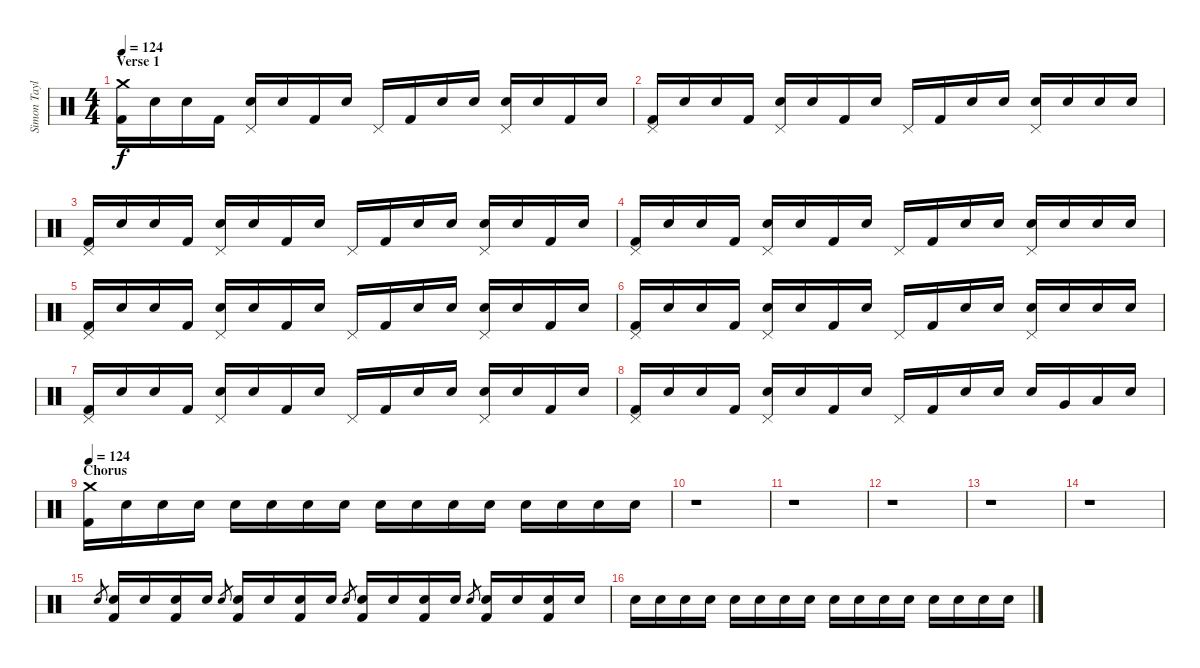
\track ("Simon Taylor - Drums" "Simon Tayl") {instrument percussion}
\staff {score}
\articulation defaults
\ts (4 4)
\section ("" "Verse 1")
\tempo 124
\clef neutral
\ks c
("Crash medium (hit)" "Kick (hit) 2").16{dy f volume 16 balance 8} "Snare (hit)".16 "Snare (hit)".16 "Kick (hit) 2".16 ("Pedal Hi-Hat (hit)" "Electric Snare (hit)").16 "Snare (hit)".16 "Kick (hit) 2".16 "Snare (hit)".16 "Pedal Hi-Hat (hit)".16 "Kick (hit) 2".16 "Snare (hit)".16 "Snare (hit)".16 ("Pedal Hi-Hat (hit)" "Electric Snare (hit)").16 "Snare (hit)".16 "Kick (hit) 2".16 "Snare (hit)".16 |
("Pedal Hi-Hat (hit)" "Kick (hit) 2").16 "Snare (hit)".16 "Snare (hit)".16 "Kick (hit) 2".16 ("Pedal Hi-Hat (hit)" "Electric Snare (hit)").16 "Snare (hit)".16 "Kick (hit) 2".16 "Snare (hit)".16 "Pedal Hi-Hat (hit)".16 "Kick (hit) 2".16 "Snare (hit)".16 "Snare (hit)".16 ("Pedal Hi-Hat (hit)" "Electric Snare (hit)").16 "Electric Snare (hit)".16 "Electric Snare (hit)".16 "Snare (hit)".16 |
("Pedal Hi-Hat (hit)" "Kick (hit) 2").16 "Snare (hit)".16 "Snare (hit)".16 "Kick (hit) 2".16 ("Pedal Hi-Hat (hit)" "Electric Snare (hit)").16 "Snare (hit)".16 "Kick (hit) 2".16 "Snare (hit)".16 "Pedal Hi-Hat (hit)".16 "Kick (hit) 2".16 "Snare (hit)".16 "Snare (hit)".16 ("Pedal Hi-Hat (hit)" "Electric Snare (hit)").16 "Snare (hit)".16 "Kick (hit) 2".16 "Snare (hit)".16 |
("Pedal Hi-Hat (hit)" "Kick (hit) 2").16 "Snare (hit)".16 "Snare (hit)".16 "Kick (hit) 2".16 ("Pedal Hi-Hat (hit)" "Electric Snare (hit)").16 "Snare (hit)".16 "Kick (hit) 2".16 "Snare (hit)".16 "Pedal Hi-Hat (hit)".16 "Kick (hit) 2".16 "Snare (hit)".16 "Snare (hit)".16 ("Pedal Hi-Hat (hit)" "Electric Snare (hit)").16 "Electric Snare (hit)".16 "Electric Snare (hit)".16 "Snare (hit)".16 |
("Pedal Hi-Hat (hit)" "Kick (hit) 2").16 "Snare (hit)".16 "Snare (hit)".16 "Kick (hit) 2".16 ("Pedal Hi-Hat (hit)" "Electric Snare (hit)").16 "Snare (hit)".16 "Kick (hit) 2".16 "Snare (hit)".16 "Pedal Hi-Hat (hit)".16 "Kick (hit) 2".16 "Snare (hit)".16 "Snare (hit)".16 ("Pedal Hi-Hat (hit)" "Electric Snare (hit)").16 "Snare (hit)".16 "Kick (hit) 2".16 "Snare (hit)".16 |
("Pedal Hi-Hat (hit)" "Kick (hit) 2").16 "Snare (hit)".16 "Snare (hit)".16 "Kick (hit) 2".16 ("Pedal Hi-Hat (hit)" "Electric Snare (hit)").16 "Snare (hit)".16 "Kick (hit) 2".16 "Snare (hit)".16 "Pedal Hi-Hat (hit)".16 "Kick (hit) 2".16 "Snare (hit)".16 "Snare (hit)".16 ("Pedal Hi-Hat (hit)" "Electric Snare (hit)").16 "Electric Snare (hit)".16 "Electric Snare (hit)".16 "Snare (hit)".16 |
("Pedal Hi-Hat (hit)" "Kick (hit) 2").16 "Snare (hit)".16 "Snare (hit)".16 "Kick (hit) 2".16 ("Pedal Hi-Hat (hit)" "Electric Snare (hit)").16 "Snare (hit)".16 "Kick (hit) 2".16 "Snare (hit)".16 "Pedal Hi-Hat (hit)".16 "Kick (hit) 2".16 "Snare (hit)".16 "Snare (hit)".16 ("Pedal Hi-Hat (hit)" "Electric Snare (hit)").16 "Snare (hit)".16 "Kick (hit) 2".16 "Snare (hit)".16 |
("Pedal Hi-Hat (hit)" "Kick (hit) 2").16 "Snare (hit)".16 "Snare (hit)".16 "Kick (hit) 2".16 ("Pedal Hi-Hat (hit)" "Electric Snare (hit)").16 "Snare (hit)".16 "Kick (hit) 2".16 "Snare (hit)".16 "Pedal Hi-Hat (hit)".16 "Kick (hit) 2".16 "Snare (hit)".16 "Snare (hit)".16 "Electric Snare (hit)".16 "Very Low Tom (hit)".16 "Low Floor Tom (hit)".16 "Snare (hit)".16 |
\section ("" "Chorus")
\tempo 124
("Crash medium (hit)" "Kick (hit) 2").16{volume 16 balance 8} "Snare (hit)".16 "Snare (hit)".16 "Snare (hit)".16 "Snare (hit)".16 "Snare (hit)".16 "Snare (hit)".16 "Snare (hit)".16 "Snare (hit)".16 "Snare (hit)".16 "Snare (hit)".16 "Snare (hit)".16 "Snare (hit)".16 "Snare (hit)".16 "Snare (hit)".16 "Snare (hit)".16 |
r.1 |
r.1 |
r.1 |
r.1 |
r.1 |
"Electric Snare (hit)".8{gr} ("Electric Snare (hit)" "Kick (hit) 2").16 "Snare (hit)".16 ("Snare (hit)" "Kick (hit) 2").16 "Snare (hit)".16 "Electric Snare (hit)".8{gr} ("Electric Snare (hit)" "Kick (hit) 2").16 "Snare (hit)".16 ("Snare (hit)" "Kick (hit) 2").16 "Snare (hit)".16 "Electric Snare (hit)".8{gr} ("Electric Snare (hit)" "Kick (hit) 2").16 "Snare (hit)".16 ("Snare (hit)" "Kick (hit) 2").16 "Snare (hit)".16 "Electric Snare (hit)".8{gr} ("Electric Snare (hit)" "Kick (hit) 2").16 "Snare (hit)".16 ("Snare (hit)" "Kick (hit) 2").16 "Snare (hit)".16 |
"Electric Snare (hit)".16 "Electric Snare (hit)".16 "Electric Snare (hit)".16 "Electric Snare (hit)".16 "Electric Snare (hit)".16 "Snare (hit)".16 "Electric Snare (hit)".16 "Electric Snare (hit)".16 "Electric Snare (hit)".16 "Electric Snare (hit)".16 "Electric Snare (hit)".16 "Snare (hit)".16 "Electric Snare (hit)".16 "Electric Snare (hit)".16 "Electric Snare (hit)".16 "Electric Snare (hit)".16
